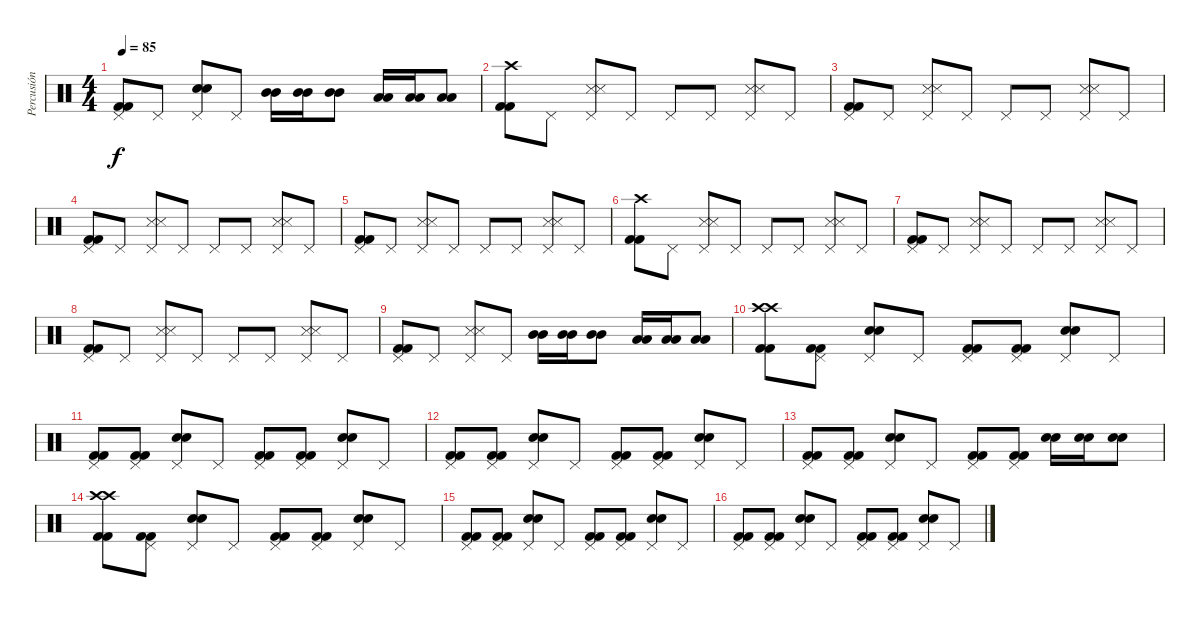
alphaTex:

\track ("Percusión" "Percusión") {instrument percussion}
\staff {score}
\articulation defaults
\ts (4 4)
\tempo 85
\clef neutral
\ks c
("Kick (hit) 2" "Kick (hit) 2" "Pedal Hi-Hat (hit)").8{dy f} "Pedal Hi-Hat (hit)".8 ("Electric Snare (hit)" "Electric Snare (hit)" "Pedal Hi-Hat (hit)").8 "Pedal Hi-Hat (hit)".8 ("Mid Tom (hit)" "Mid Tom (hit)").16 ("Mid Tom (hit)" "Mid Tom (hit)").16 ("Mid Tom (hit)" "Mid Tom (hit)").8 ("Low Tom (hit)" "Low Tom (hit)").16 ("Low Tom (hit)" "Low Tom (hit)").16 ("Low Tom (hit)" "Low Tom (hit)").8 |
("Kick (hit) 2" "Kick (hit) 2" "Crash high (hit)").8 "Pedal Hi-Hat (hit)".8 ("Snare (side stick) 3" "Snare (side stick) 3" "Pedal Hi-Hat (hit)").8 "Pedal Hi-Hat (hit)".8 "Pedal Hi-Hat (hit)".8 "Pedal Hi-Hat (hit)".8 ("Snare (side stick) 3" "Snare (side stick) 3" "Pedal Hi-Hat (hit)").8 "Pedal Hi-Hat (hit)".8 |
("Kick (hit) 2" "Kick (hit) 2" "Pedal Hi-Hat (hit)").8 "Pedal Hi-Hat (hit)".8 ("Snare (side stick) 3" "Snare (side stick) 3" "Pedal Hi-Hat (hit)").8 "Pedal Hi-Hat (hit)".8 "Pedal Hi-Hat (hit)".8 "Pedal Hi-Hat (hit)".8 ("Snare (side stick) 3" "Snare (side stick) 3" "Pedal Hi-Hat (hit)").8 "Pedal Hi-Hat (hit)".8 |
("Kick (hit) 2" "Kick (hit) 2" "Pedal Hi-Hat (hit)").8 "Pedal Hi-Hat (hit)".8 ("Snare (side stick) 3" "Snare (side stick) 3" "Pedal Hi-Hat (hit)").8 "Pedal Hi-Hat (hit)".8 "Pedal Hi-Hat (hit)".8 "Pedal Hi-Hat (hit)".8 ("Snare (side stick) 3" "Snare (side stick) 3" "Pedal Hi-Hat (hit)").8 "Pedal Hi-Hat (hit)".8 |
("Kick (hit) 2" "Kick (hit) 2" "Pedal Hi-Hat (hit)").8 "Pedal Hi-Hat (hit)".8 ("Snare (side stick) 3" "Snare (side stick) 3" "Pedal Hi-Hat (hit)").8 "Pedal Hi-Hat (hit)".8 "Pedal Hi-Hat (hit)".8 "Pedal Hi-Hat (hit)".8 ("Snare (side stick) 3" "Snare (side stick) 3" "Pedal Hi-Hat (hit)").8 "Pedal Hi-Hat (hit)".8 |
("Kick (hit) 2" "Kick (hit) 2" "Crash high (hit)").8 "Pedal Hi-Hat (hit)".8 ("Snare (side stick) 3" "Snare (side stick) 3" "Pedal Hi-Hat (hit)").8 "Pedal Hi-Hat (hit)".8 "Pedal Hi-Hat (hit)".8 "Pedal Hi-Hat (hit)".8 ("Snare (side stick) 3" "Snare (side stick) 3" "Pedal Hi-Hat (hit)").8 "Pedal Hi-Hat (hit)".8 |
("Kick (hit) 2" "Kick (hit) 2" "Pedal Hi-Hat (hit)").8 "Pedal Hi-Hat (hit)".8 ("Snare (side stick) 3" "Snare (side stick) 3" "Pedal Hi-Hat (hit)").8 "Pedal Hi-Hat (hit)".8 "Pedal Hi-Hat (hit)".8 "Pedal Hi-Hat (hit)".8 ("Snare (side stick) 3" "Snare (side stick) 3" "Pedal Hi-Hat (hit)").8 "Pedal Hi-Hat (hit)".8 |
("Kick (hit) 2" "Kick (hit) 2" "Pedal Hi-Hat (hit)").8 "Pedal Hi-Hat (hit)".8 ("Snare (side stick) 3" "Snare (side stick) 3" "Pedal Hi-Hat (hit)").8 "Pedal Hi-Hat (hit)".8 "Pedal Hi-Hat (hit)".8 "Pedal Hi-Hat (hit)".8 ("Snare (side stick) 3" "Snare (side stick) 3" "Pedal Hi-Hat (hit)").8 "Pedal Hi-Hat (hit)".8 |
("Kick (hit) 2" "Kick (hit) 2" "Pedal Hi-Hat (hit)").8 "Pedal Hi-Hat (hit)".8 ("Snare (side stick) 3" "Snare (side stick) 3" "Pedal Hi-Hat (hit)").8 "Pedal Hi-Hat (hit)".8 ("Mid Tom (hit)" "Mid Tom (hit)").16 ("Mid Tom (hit)" "Mid Tom (hit)").16 ("Mid Tom (hit)" "Mid Tom (hit)").8 ("Low Tom (hit)" "Low Tom (hit)").16 ("Low Tom (hit)" "Low Tom (hit)").16 ("Low Tom (hit)" "Low Tom (hit)").8 |
("Kick (hit) 2" "Kick (hit) 2" "Crash high (hit)" "Crash high (hit)").8 ("Kick (hit) 2" "Kick (hit) 2" "Pedal Hi-Hat (hit)").8 ("Electric Snare (hit)" "Electric Snare (hit)" "Pedal Hi-Hat (hit)").8 "Pedal Hi-Hat (hit)".8 ("Kick (hit) 2" "Kick (hit) 2" "Pedal Hi-Hat (hit)").8 ("Kick (hit) 2" "Kick (hit) 2" "Pedal Hi-Hat (hit)").8 ("Electric Snare (hit)" "Electric Snare (hit)" "Pedal Hi-Hat (hit)").8 "Pedal Hi-Hat (hit)".8 |
("Kick (hit) 2" "Kick (hit) 2" "Pedal Hi-Hat (hit)").8 ("Kick (hit) 2" "Kick (hit) 2" "Pedal Hi-Hat (hit)").8 ("Electric Snare (hit)" "Electric Snare (hit)" "Pedal Hi-Hat (hit)").8 "Pedal Hi-Hat (hit)".8 ("Kick (hit) 2" "Kick (hit) 2" "Pedal Hi-Hat (hit)").8 ("Kick (hit) 2" "Kick (hit) 2" "Pedal Hi-Hat (hit)").8 ("Electric Snare (hit)" "Electric Snare (hit)" "Pedal Hi-Hat (hit)").8 "Pedal Hi-Hat (hit)".8 |
("Kick (hit) 2" "Kick (hit) 2" "Pedal Hi-Hat (hit)").8 ("Kick (hit) 2" "Kick (hit) 2" "Pedal Hi-Hat (hit)").8 ("Electric Snare (hit)" "Electric Snare (hit)" "Pedal Hi-Hat (hit)").8 "Pedal Hi-Hat (hit)".8 ("Kick (hit) 2" "Kick (hit) 2" "Pedal Hi-Hat (hit)").8 ("Kick (hit) 2" "Kick (hit) 2" "Pedal Hi-Hat (hit)").8 ("Electric Snare (hit)" "Electric Snare (hit)" "Pedal Hi-Hat (hit)").8 "Pedal Hi-Hat (hit)".8 |
("Kick (hit) 2" "Kick (hit) 2" "Pedal Hi-Hat (hit)").8 ("Kick (hit) 2" "Kick (hit) 2" "Pedal Hi-Hat (hit)").8 ("Electric Snare (hit)" "Electric Snare (hit)" "Pedal Hi-Hat (hit)").8 "Pedal Hi-Hat (hit)".8 ("Kick (hit) 2" "Kick (hit) 2" "Pedal Hi-Hat (hit)").8 ("Kick (hit) 2" "Kick (hit) 2" "Pedal Hi-Hat (hit)").8 ("Electric Snare (hit)" "Electric Snare (hit)").16 ("Electric Snare (hit)" "Electric Snare (hit)").16 ("Electric Snare (hit)" "Electric Snare (hit)").8 |
("Kick (hit) 2" "Kick (hit) 2" "Crash high (hit)" "Crash high (hit)").8 ("Kick (hit) 2" "Kick (hit) 2" "Pedal Hi-Hat (hit)").8 ("Electric Snare (hit)" "Electric Snare (hit)" "Pedal Hi-Hat (hit)").8 "Pedal Hi-Hat (hit)".8 ("Kick (hit) 2" "Kick (hit) 2" "Pedal Hi-Hat (hit)").8 ("Kick (hit) 2" "Kick (hit) 2" "Pedal Hi-Hat (hit)").8 ("Electric Snare (hit)" "Electric Snare (hit)" "Pedal Hi-Hat (hit)").8 "Pedal Hi-Hat (hit)".8 |
("Kick (hit) 2" "Kick (hit) 2" "Pedal Hi-Hat (hit)").8 ("Kick (hit) 2" "Kick (hit) 2" "Pedal Hi-Hat (hit)").8 ("Electric Snare (hit)" "Electric Snare (hit)" "Pedal Hi-Hat (hit)").8 "Pedal Hi-Hat (hit)".8 ("Kick (hit) 2" "Kick (hit) 2" "Pedal Hi-Hat (hit)").8 ("Kick (hit) 2" "Kick (hit) 2" "Pedal Hi-Hat (hit)").8 ("Electric Snare (hit)" "Electric Snare (hit)" "Pedal Hi-Hat (hit)").8 "Pedal Hi-Hat (hit)".8 |
("Kick (hit) 2" "Kick (hit) 2" "Pedal Hi-Hat (hit)").8 ("Kick (hit) 2" "Kick (hit) 2" "Pedal Hi-Hat (hit)").8 ("Electric Snare (hit)" "Electric Snare (hit)" "Pedal Hi-Hat (hit)").8 "Pedal Hi-Hat (hit)".8 ("Kick (hit) 2" "Kick (hit) 2" "Pedal Hi-Hat (hit)").8 ("Kick (hit) 2" "Kick (hit) 2" "Pedal Hi-Hat (hit)").8 ("Electric Snare (hit)" "Electric Snare (hit)" "Pedal Hi-Hat (hit)").8 "Pedal Hi-Hat (hit)".8
